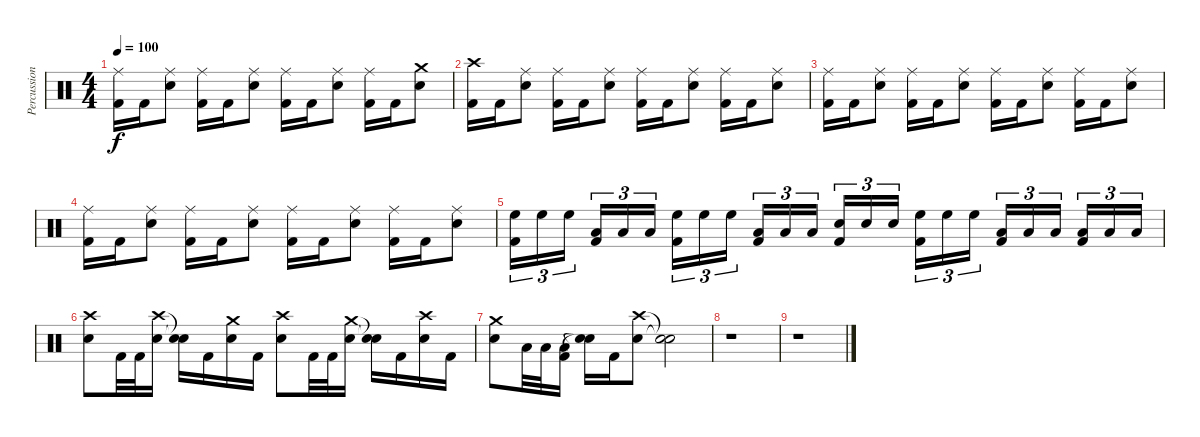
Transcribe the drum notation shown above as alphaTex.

\track ("Percussion" "Percussion") {instrument percussion}
\staff {score}
\articulation defaults
\ts (4 4)
\tempo 100
\clef neutral
\ks c
("Ride (middle)" "Kick (hit) 2").16{dy f} "Kick (hit) 2".16 ("Ride (middle)" "Snare (hit) 2").8 ("Ride (middle)" "Kick (hit) 2").16 "Kick (hit) 2".16 ("Ride (middle)" "Snare (hit) 2").8 ("Ride (middle)" "Kick (hit) 2").16 "Kick (hit) 2".16 ("Ride (middle)" "Snare (hit) 2").8 ("Ride (middle)" "Kick (hit) 2").16 "Kick (hit) 2".16 ("Crash medium (hit)" "Snare (hit) 2").8 |
("Crash high (hit)" "Kick (hit) 2").16 "Kick (hit) 2".16 ("Ride (middle)" "Snare (hit) 2").8 ("Ride (middle)" "Kick (hit) 2").16 "Kick (hit) 2".16 ("Ride (middle)" "Snare (hit) 2").8 ("Ride (middle)" "Kick (hit) 2").16 "Kick (hit) 2".16 ("Ride (middle)" "Snare (hit) 2").8 ("Ride (middle)" "Kick (hit) 2").16 "Kick (hit) 2".16 ("Ride (middle)" "Snare (hit) 2").8 |
("Ride (middle)" "Kick (hit) 2").16 "Kick (hit) 2".16 ("Ride (middle)" "Snare (hit) 2").8 ("Ride (middle)" "Kick (hit) 2").16 "Kick (hit) 2".16 ("Ride (middle)" "Snare (hit) 2").8 ("Ride (middle)" "Kick (hit) 2").16 "Kick (hit) 2".16 ("Ride (middle)" "Snare (hit) 2").8 ("Ride (middle)" "Kick (hit) 2").16 "Kick (hit) 2".16 ("Ride (middle)" "Snare (hit) 2").8 |
("Ride (middle)" "Kick (hit) 2").16 "Kick (hit) 2".16 ("Ride (middle)" "Snare (hit) 2").8 ("Ride (middle)" "Kick (hit) 2").16 "Kick (hit) 2".16 ("Ride (middle)" "Snare (hit) 2").8 ("Ride (middle)" "Kick (hit) 2").16 "Kick (hit) 2".16 ("Ride (middle)" "Snare (hit) 2").8 ("Ride (middle)" "Kick (hit) 2").16 "Kick (hit) 2".16 ("Ride (middle)" "Snare (hit) 2").8 |
("High Floor Tom (hit)" "Kick (hit) 2").16{tu (3 2)} "High Floor Tom (hit)".16{tu (3 2)} "High Floor Tom (hit)".16{tu (3 2)} ("Low Tom (hit)" "Kick (hit) 2").16{tu (3 2)} "Low Tom (hit)".16{tu (3 2)} "Low Tom (hit)".16{tu (3 2)} ("High Floor Tom (hit)" "Kick (hit) 2").16{tu (3 2)} "High Floor Tom (hit)".16{tu (3 2)} "High Floor Tom (hit)".16{tu (3 2)} ("Low Tom (hit)" "Kick (hit) 2").16{tu (3 2)} "Low Tom (hit)".16{tu (3 2)} "Low Tom (hit)".16{tu (3 2)} ("Snare (hit) 2" "Kick (hit) 2").16{tu (3 2)} "Snare (hit) 2".16{tu (3 2)} "Snare (hit) 2".16{tu (3 2)} ("High Floor Tom (hit)" "Kick (hit) 2").16{tu (3 2)} "High Floor Tom (hit)".16{tu (3 2)} "High Floor Tom (hit)".16{tu (3 2)} ("Low Tom (hit)" "Kick (hit) 2").16{tu (3 2)} "Low Tom (hit)".16{tu (3 2)} "Low Tom (hit)".16{tu (3 2)} ("Low Floor Tom (hit)" "Kick (hit) 2").16{tu (3 2)} "Low Floor Tom (hit)".16{tu (3 2)} "Low Floor Tom (hit)".16{tu (3 2)} |
("Crash high (hit)" "Snare (hit) 2").8 "Kick (hit) 2".32 "Kick (hit) 2".32 ("Crash high (hit)" "Snare (hit) 2").16 ("Snare (hit)"{t} "Snare (hit)"{t}).16 "Kick (hit) 2".16 ("Crash medium (hit)" "Snare (hit) 2").16 "Kick (hit) 2".16 ("Crash high (hit)" "Snare (hit) 2").8 "Kick (hit) 2".32 "Kick (hit) 2".32 ("Crash medium (hit)" "Snare (hit) 2").16 ("Snare (hit)"{t} "Snare (hit)"{t}).16 "Kick (hit) 2".16 ("Crash high (hit)" "Snare (hit) 2").16 "Kick (hit) 2".16 |
("Crash medium (hit)" "Snare (hit) 2").8 "Low Tom (hit)".32 "Low Tom (hit)".32 ("Low Floor Tom (hit)" "Kick (hit) 2").16 ("Snare (hit)"{t} "Snare (hit)"{t}).16 "Kick (hit) 2".16 ("Crash high (hit)" "Snare (hit) 2").8 ("Snare (hit)"{t} "Snare (hit)"{t}).2 |
r.1 |
r.1
